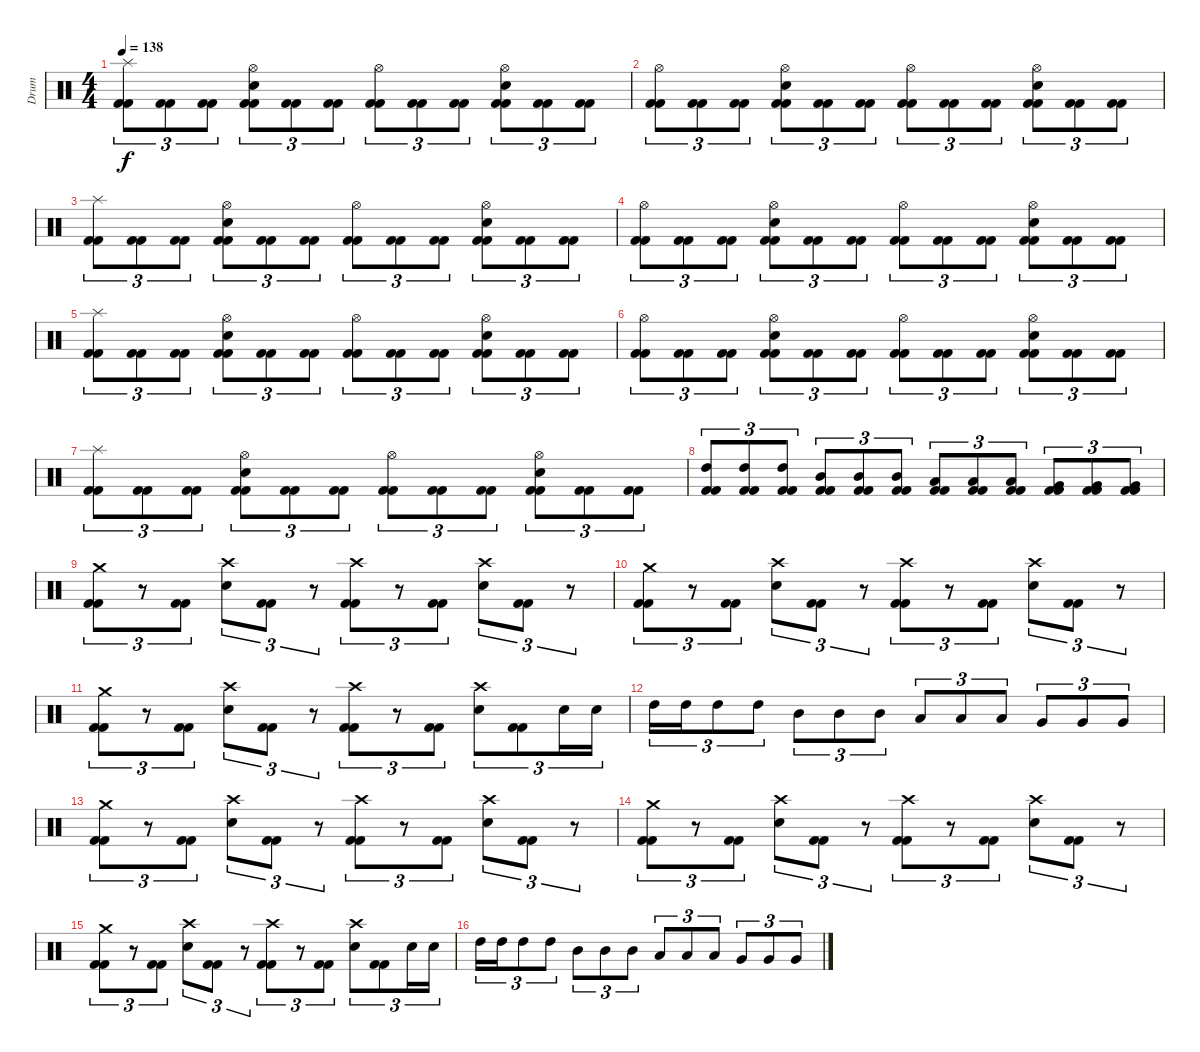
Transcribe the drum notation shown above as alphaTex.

\track ("Drum" "Drum") {instrument percussion}
\staff {score}
\articulation defaults
\ts (4 4)
\tempo 138
\clef neutral
\ks c
("Kick (hit) 2" "Kick (hit) 2" "Splash (hit)").8{tu (3 2) dy f} ("Kick (hit) 2" "Kick (hit) 2").8{tu (3 2)} ("Kick (hit) 2" "Kick (hit) 2").8{tu (3 2)} ("Kick (hit) 2" "Kick (hit) 2" "Electric Snare (hit)" "Hi-Hat (open)").8{tu (3 2)} ("Kick (hit) 2" "Kick (hit) 2").8{tu (3 2)} ("Kick (hit) 2" "Kick (hit) 2").8{tu (3 2)} ("Kick (hit) 2" "Kick (hit) 2" "Hi-Hat (open)").8{tu (3 2)} ("Kick (hit) 2" "Kick (hit) 2").8{tu (3 2)} ("Kick (hit) 2" "Kick (hit) 2").8{tu (3 2)} ("Kick (hit) 2" "Kick (hit) 2" "Electric Snare (hit)" "Hi-Hat (open)").8{tu (3 2)} ("Kick (hit) 2" "Kick (hit) 2").8{tu (3 2)} ("Kick (hit) 2" "Kick (hit) 2").8{tu (3 2)} |
("Kick (hit) 2" "Kick (hit) 2" "Hi-Hat (open)").8{tu (3 2)} ("Kick (hit) 2" "Kick (hit) 2").8{tu (3 2)} ("Kick (hit) 2" "Kick (hit) 2").8{tu (3 2)} ("Kick (hit) 2" "Kick (hit) 2" "Electric Snare (hit)" "Hi-Hat (open)").8{tu (3 2)} ("Kick (hit) 2" "Kick (hit) 2").8{tu (3 2)} ("Kick (hit) 2" "Kick (hit) 2").8{tu (3 2)} ("Kick (hit) 2" "Kick (hit) 2" "Hi-Hat (open)").8{tu (3 2)} ("Kick (hit) 2" "Kick (hit) 2").8{tu (3 2)} ("Kick (hit) 2" "Kick (hit) 2").8{tu (3 2)} ("Kick (hit) 2" "Kick (hit) 2" "Electric Snare (hit)" "Hi-Hat (open)").8{tu (3 2)} ("Kick (hit) 2" "Kick (hit) 2").8{tu (3 2)} ("Kick (hit) 2" "Kick (hit) 2").8{tu (3 2)} |
("Kick (hit) 2" "Kick (hit) 2" "Splash (hit)").8{tu (3 2)} ("Kick (hit) 2" "Kick (hit) 2").8{tu (3 2)} ("Kick (hit) 2" "Kick (hit) 2").8{tu (3 2)} ("Kick (hit) 2" "Kick (hit) 2" "Electric Snare (hit)" "Hi-Hat (open)").8{tu (3 2)} ("Kick (hit) 2" "Kick (hit) 2").8{tu (3 2)} ("Kick (hit) 2" "Kick (hit) 2").8{tu (3 2)} ("Kick (hit) 2" "Kick (hit) 2" "Hi-Hat (open)").8{tu (3 2)} ("Kick (hit) 2" "Kick (hit) 2").8{tu (3 2)} ("Kick (hit) 2" "Kick (hit) 2").8{tu (3 2)} ("Kick (hit) 2" "Kick (hit) 2" "Electric Snare (hit)" "Hi-Hat (open)").8{tu (3 2)} ("Kick (hit) 2" "Kick (hit) 2").8{tu (3 2)} ("Kick (hit) 2" "Kick (hit) 2").8{tu (3 2)} |
("Kick (hit) 2" "Kick (hit) 2" "Hi-Hat (open)").8{tu (3 2)} ("Kick (hit) 2" "Kick (hit) 2").8{tu (3 2)} ("Kick (hit) 2" "Kick (hit) 2").8{tu (3 2)} ("Kick (hit) 2" "Kick (hit) 2" "Electric Snare (hit)" "Hi-Hat (open)").8{tu (3 2)} ("Kick (hit) 2" "Kick (hit) 2").8{tu (3 2)} ("Kick (hit) 2" "Kick (hit) 2").8{tu (3 2)} ("Kick (hit) 2" "Kick (hit) 2" "Hi-Hat (open)").8{tu (3 2)} ("Kick (hit) 2" "Kick (hit) 2").8{tu (3 2)} ("Kick (hit) 2" "Kick (hit) 2").8{tu (3 2)} ("Kick (hit) 2" "Kick (hit) 2" "Electric Snare (hit)" "Hi-Hat (open)").8{tu (3 2)} ("Kick (hit) 2" "Kick (hit) 2").8{tu (3 2)} ("Kick (hit) 2" "Kick (hit) 2").8{tu (3 2)} |
("Kick (hit) 2" "Kick (hit) 2" "Splash (hit)").8{tu (3 2)} ("Kick (hit) 2" "Kick (hit) 2").8{tu (3 2)} ("Kick (hit) 2" "Kick (hit) 2").8{tu (3 2)} ("Kick (hit) 2" "Kick (hit) 2" "Electric Snare (hit)" "Hi-Hat (open)").8{tu (3 2)} ("Kick (hit) 2" "Kick (hit) 2").8{tu (3 2)} ("Kick (hit) 2" "Kick (hit) 2").8{tu (3 2)} ("Kick (hit) 2" "Kick (hit) 2" "Hi-Hat (open)").8{tu (3 2)} ("Kick (hit) 2" "Kick (hit) 2").8{tu (3 2)} ("Kick (hit) 2" "Kick (hit) 2").8{tu (3 2)} ("Kick (hit) 2" "Kick (hit) 2" "Electric Snare (hit)" "Hi-Hat (open)").8{tu (3 2)} ("Kick (hit) 2" "Kick (hit) 2").8{tu (3 2)} ("Kick (hit) 2" "Kick (hit) 2").8{tu (3 2)} |
("Kick (hit) 2" "Kick (hit) 2" "Hi-Hat (open)").8{tu (3 2)} ("Kick (hit) 2" "Kick (hit) 2").8{tu (3 2)} ("Kick (hit) 2" "Kick (hit) 2").8{tu (3 2)} ("Kick (hit) 2" "Kick (hit) 2" "Electric Snare (hit)" "Hi-Hat (open)").8{tu (3 2)} ("Kick (hit) 2" "Kick (hit) 2").8{tu (3 2)} ("Kick (hit) 2" "Kick (hit) 2").8{tu (3 2)} ("Kick (hit) 2" "Kick (hit) 2" "Hi-Hat (open)").8{tu (3 2)} ("Kick (hit) 2" "Kick (hit) 2").8{tu (3 2)} ("Kick (hit) 2" "Kick (hit) 2").8{tu (3 2)} ("Kick (hit) 2" "Kick (hit) 2" "Electric Snare (hit)" "Hi-Hat (open)").8{tu (3 2)} ("Kick (hit) 2" "Kick (hit) 2").8{tu (3 2)} ("Kick (hit) 2" "Kick (hit) 2").8{tu (3 2)} |
("Kick (hit) 2" "Kick (hit) 2" "Splash (hit)").8{tu (3 2)} ("Kick (hit) 2" "Kick (hit) 2").8{tu (3 2)} ("Kick (hit) 2" "Kick (hit) 2").8{tu (3 2)} ("Kick (hit) 2" "Kick (hit) 2" "Electric Snare (hit)" "Hi-Hat (open)").8{tu (3 2)} ("Kick (hit) 2" "Kick (hit) 2").8{tu (3 2)} ("Kick (hit) 2" "Kick (hit) 2").8{tu (3 2)} ("Kick (hit) 2" "Kick (hit) 2" "Hi-Hat (open)").8{tu (3 2)} ("Kick (hit) 2" "Kick (hit) 2").8{tu (3 2)} ("Kick (hit) 2" "Kick (hit) 2").8{tu (3 2)} ("Kick (hit) 2" "Kick (hit) 2" "Electric Snare (hit)" "Hi-Hat (open)").8{tu (3 2)} ("Kick (hit) 2" "Kick (hit) 2").8{tu (3 2)} ("Kick (hit) 2" "Kick (hit) 2").8{tu (3 2)} |
("Kick (hit) 2" "Kick (hit) 2" "High Tom (hit)").8{tu (3 2)} ("Kick (hit) 2" "Kick (hit) 2" "High Tom (hit)").8{tu (3 2)} ("Kick (hit) 2" "Kick (hit) 2" "High Tom (hit)").8{tu (3 2)} ("Kick (hit) 2" "Kick (hit) 2" "Mid Tom (hit)").8{tu (3 2)} ("Kick (hit) 2" "Kick (hit) 2" "Mid Tom (hit)").8{tu (3 2)} ("Kick (hit) 2" "Kick (hit) 2" "Mid Tom (hit)").8{tu (3 2)} ("Kick (hit) 2" "Kick (hit) 2" "Low Tom (hit)").8{tu (3 2)} ("Kick (hit) 2" "Kick (hit) 2" "Low Tom (hit)").8{tu (3 2)} ("Kick (hit) 2" "Kick (hit) 2" "Low Tom (hit)").8{tu (3 2)} ("Kick (hit) 2" "Kick (hit) 2" "Very Low Tom (hit)").8{tu (3 2)} ("Kick (hit) 2" "Kick (hit) 2" "Very Low Tom (hit)").8{tu (3 2)} ("Kick (hit) 2" "Kick (hit) 2" "Very Low Tom (hit)").8{tu (3 2)} |
("Kick (hit) 2" "Kick (hit) 2" "Crash medium (hit)").8{tu (3 2)} r.8{tu (3 2)} ("Kick (hit) 2" "Kick (hit) 2").8{tu (3 2)} ("Electric Snare (hit)" "Crash high (hit)").8{tu (3 2)} ("Kick (hit) 2" "Kick (hit) 2").8{tu (3 2)} r.8{tu (3 2)} ("Kick (hit) 2" "Kick (hit) 2" "Crash high (hit)").8{tu (3 2)} r.8{tu (3 2)} ("Kick (hit) 2" "Kick (hit) 2").8{tu (3 2)} ("Electric Snare (hit)" "Crash high (hit)").8{tu (3 2)} ("Kick (hit) 2" "Kick (hit) 2").8{tu (3 2)} r.8{tu (3 2)} |
("Kick (hit) 2" "Kick (hit) 2" "Crash medium (hit)").8{tu (3 2)} r.8{tu (3 2)} ("Kick (hit) 2" "Kick (hit) 2").8{tu (3 2)} ("Electric Snare (hit)" "Crash high (hit)").8{tu (3 2)} ("Kick (hit) 2" "Kick (hit) 2").8{tu (3 2)} r.8{tu (3 2)} ("Kick (hit) 2" "Kick (hit) 2" "Crash high (hit)").8{tu (3 2)} r.8{tu (3 2)} ("Kick (hit) 2" "Kick (hit) 2").8{tu (3 2)} ("Electric Snare (hit)" "Crash high (hit)").8{tu (3 2)} ("Kick (hit) 2" "Kick (hit) 2").8{tu (3 2)} r.8{tu (3 2)} |
("Kick (hit) 2" "Kick (hit) 2" "Crash medium (hit)").8{tu (3 2)} r.8{tu (3 2)} ("Kick (hit) 2" "Kick (hit) 2").8{tu (3 2)} ("Electric Snare (hit)" "Crash high (hit)").8{tu (3 2)} ("Kick (hit) 2" "Kick (hit) 2").8{tu (3 2)} r.8{tu (3 2)} ("Kick (hit) 2" "Kick (hit) 2" "Crash high (hit)").8{tu (3 2)} r.8{tu (3 2)} ("Kick (hit) 2" "Kick (hit) 2").8{tu (3 2)} ("Electric Snare (hit)" "Crash high (hit)").8{tu (3 2)} ("Kick (hit) 2" "Kick (hit) 2").8{tu (3 2)} "Electric Snare (hit)".16{tu (3 2)} "Electric Snare (hit)".16{tu (3 2)} |
"High Tom (hit)".16{tu (3 2)} "High Tom (hit)".16{tu (3 2)} "High Tom (hit)".8{tu (3 2)} "High Tom (hit)".8{tu (3 2)} "Mid Tom (hit)".8{tu (3 2)} "Mid Tom (hit)".8{tu (3 2)} "Mid Tom (hit)".8{tu (3 2)} "Low Tom (hit)".8{tu (3 2)} "Low Tom (hit)".8{tu (3 2)} "Low Tom (hit)".8{tu (3 2)} "Very Low Tom (hit)".8{tu (3 2)} "Very Low Tom (hit)".8{tu (3 2)} "Very Low Tom (hit)".8{tu (3 2)} |
("Kick (hit) 2" "Kick (hit) 2" "Crash medium (hit)").8{tu (3 2)} r.8{tu (3 2)} ("Kick (hit) 2" "Kick (hit) 2").8{tu (3 2)} ("Electric Snare (hit)" "Crash high (hit)").8{tu (3 2)} ("Kick (hit) 2" "Kick (hit) 2").8{tu (3 2)} r.8{tu (3 2)} ("Kick (hit) 2" "Kick (hit) 2" "Crash high (hit)").8{tu (3 2)} r.8{tu (3 2)} ("Kick (hit) 2" "Kick (hit) 2").8{tu (3 2)} ("Electric Snare (hit)" "Crash high (hit)").8{tu (3 2)} ("Kick (hit) 2" "Kick (hit) 2").8{tu (3 2)} r.8{tu (3 2)} |
("Kick (hit) 2" "Kick (hit) 2" "Crash medium (hit)").8{tu (3 2)} r.8{tu (3 2)} ("Kick (hit) 2" "Kick (hit) 2").8{tu (3 2)} ("Electric Snare (hit)" "Crash high (hit)").8{tu (3 2)} ("Kick (hit) 2" "Kick (hit) 2").8{tu (3 2)} r.8{tu (3 2)} ("Kick (hit) 2" "Kick (hit) 2" "Crash high (hit)").8{tu (3 2)} r.8{tu (3 2)} ("Kick (hit) 2" "Kick (hit) 2").8{tu (3 2)} ("Electric Snare (hit)" "Crash high (hit)").8{tu (3 2)} ("Kick (hit) 2" "Kick (hit) 2").8{tu (3 2)} r.8{tu (3 2)} |
("Kick (hit) 2" "Kick (hit) 2" "Crash medium (hit)").8{tu (3 2)} r.8{tu (3 2)} ("Kick (hit) 2" "Kick (hit) 2").8{tu (3 2)} ("Electric Snare (hit)" "Crash high (hit)").8{tu (3 2)} ("Kick (hit) 2" "Kick (hit) 2").8{tu (3 2)} r.8{tu (3 2)} ("Kick (hit) 2" "Kick (hit) 2" "Crash high (hit)").8{tu (3 2)} r.8{tu (3 2)} ("Kick (hit) 2" "Kick (hit) 2").8{tu (3 2)} ("Electric Snare (hit)" "Crash high (hit)").8{tu (3 2)} ("Kick (hit) 2" "Kick (hit) 2").8{tu (3 2)} "Electric Snare (hit)".16{tu (3 2)} "Electric Snare (hit)".16{tu (3 2)} |
"High Tom (hit)".16{tu (3 2)} "High Tom (hit)".16{tu (3 2)} "High Tom (hit)".8{tu (3 2)} "High Tom (hit)".8{tu (3 2)} "Mid Tom (hit)".8{tu (3 2)} "Mid Tom (hit)".8{tu (3 2)} "Mid Tom (hit)".8{tu (3 2)} "Low Tom (hit)".8{tu (3 2)} "Low Tom (hit)".8{tu (3 2)} "Low Tom (hit)".8{tu (3 2)} "Very Low Tom (hit)".8{tu (3 2)} "Very Low Tom (hit)".8{tu (3 2)} "Very Low Tom (hit)".8{tu (3 2)}
